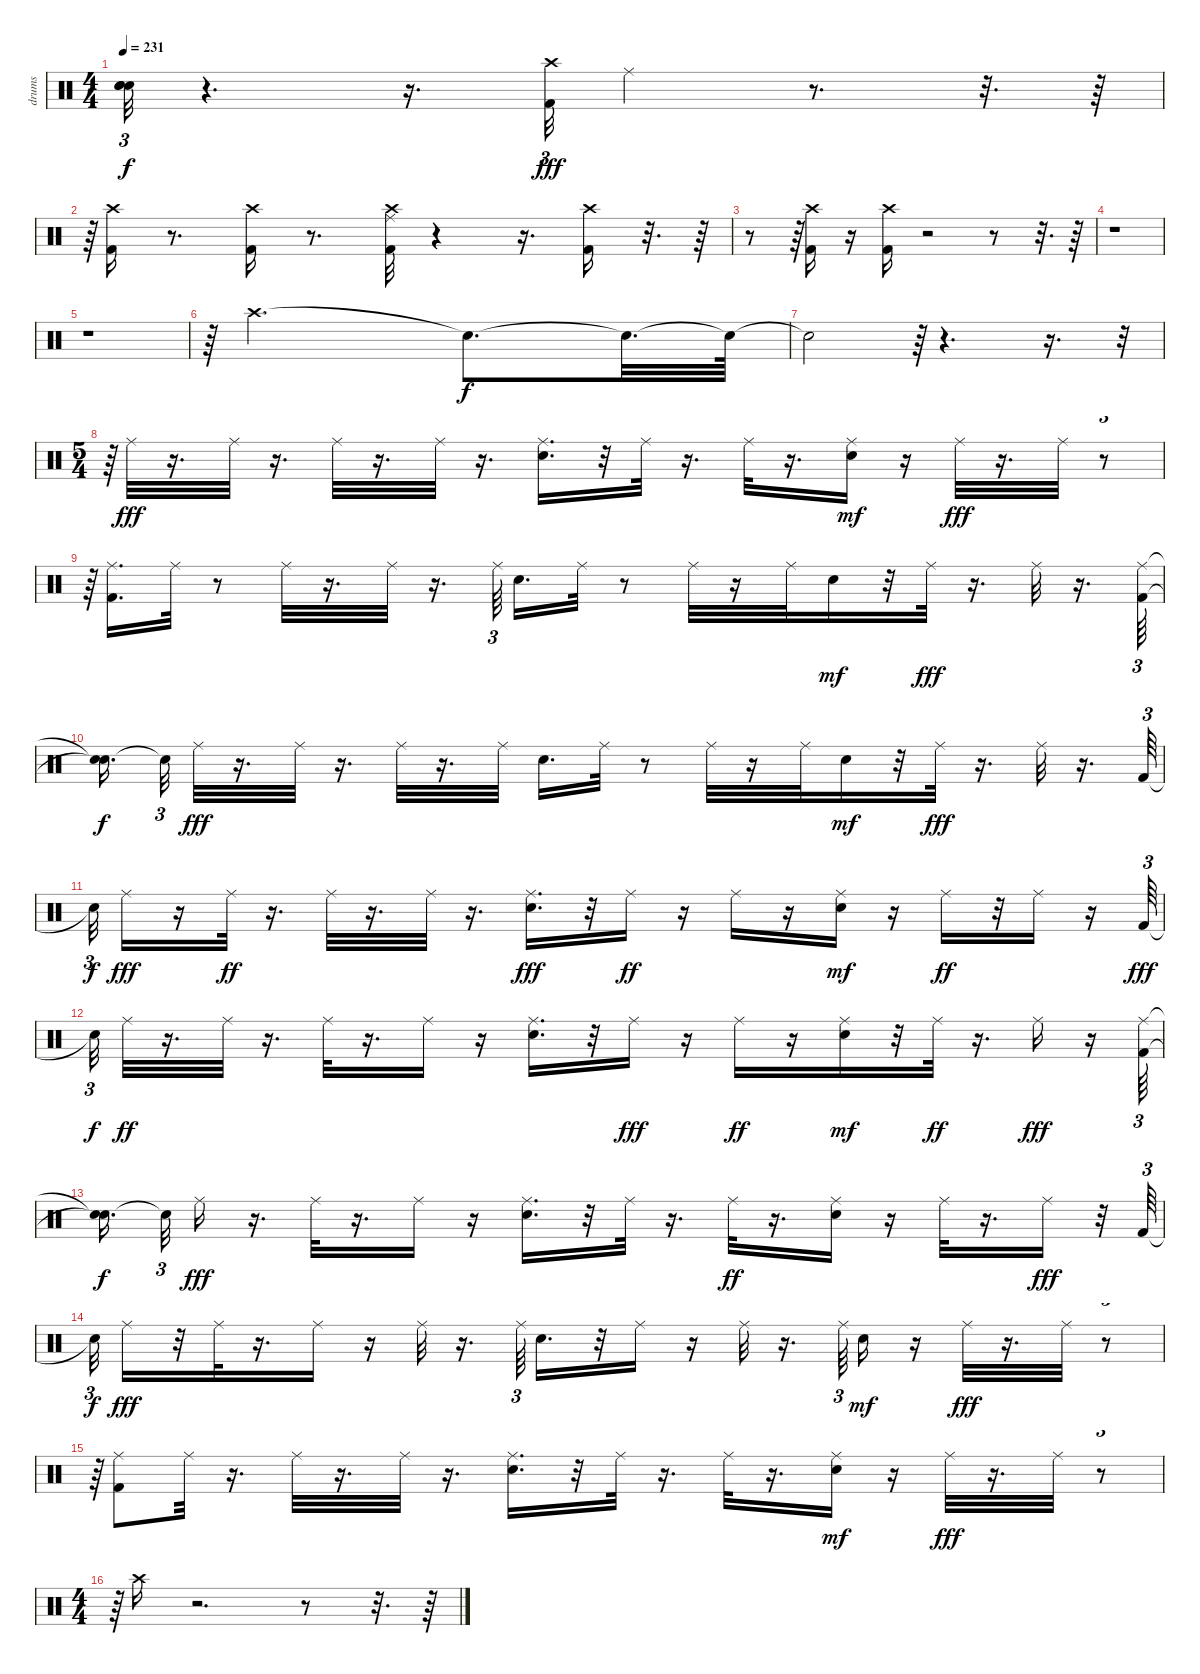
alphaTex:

\track ("drums               " "drums     ") {instrument percussion}
\staff {score}
\articulation defaults
\ts (4 4)
\tempo 231
\clef neutral
\ks c
("Snare (hit)"{t} "Snare (hit)"{t} "Snare (hit)"{t}).32{tu (3 2) dy f} r.4{d} r.16{d} ("Kick (hit) 2" "Crash high (hit)").32{tu (3 2) dy fff} "Ride (middle)".4 r.8{d} r.32{d} r.64 |
r.64{tu (3 2)} ("Kick (hit) 2" "Crash high (hit)").16 r.8{d} ("Kick (hit) 2" "Crash high (hit)").16 r.8{d} ("Kick (hit) 2" "Crash high (hit)" "Ride (middle)").32 r.4 r.16{d} ("Kick (hit) 2" "Crash high (hit)").16 r.32{d} r.64 |
r.8 r.64{tu (3 2)} ("Kick (hit) 2" "Crash high (hit)").16 r.16 ("Kick (hit) 2" "Crash high (hit)").16 r.2 r.8 r.32{d} r.64 |
r.1 |
r.1 |
r.64{tu (3 2)} "Crash high (hit)".2{d} "Snare (hit)"{t}.8{d dy f} "Snare (hit)"{t}.32{d} "Snare (hit)"{t}.64 |
"Snare (hit)"{t}.2 r.64{tu (3 2)} r.4{d} r.16{d} r.32{tu (3 2)} |
\ts (5 4)
r.64{tu (3 2)} "Ride (middle)".32{dy fff} r.16{d} "Ride (middle)".32 r.16{d} "Ride (middle)".32 r.16{d} "Ride (middle)".32 r.16{d} ("Ride (middle)" "Snare (hit) 2").16{d} r.32 "Ride (middle)".32 r.16{d} "Ride (middle)".32 r.16{d} ("Ride (middle)" "Snare (hit) 2").16{dy mf} r.16 "Ride (middle)".32{dy fff} r.16{d} "Ride (middle)".32 r.8{tu (3 2)} |
r.64{tu (3 2)} ("Kick (hit) 2" "Ride (middle)").16{d} "Ride (middle)".32 r.8 "Ride (middle)".32 r.16{d} "Ride (middle)".32 r.16{d} "Ride (middle)".64{tu (3 2)} "Snare (hit) 2".16{d} "Ride (middle)".32 r.8 "Ride (middle)".32 r.16 "Ride (middle)".32 "Snare (hit) 2".16{dy mf} r.32 "Ride (middle)".32{dy fff} r.16{d} "Ride (middle)".32 r.16{d} ("Kick (hit) 2" "Ride (middle)").64{tu (3 2)} |
("Snare (hit)"{t} "Snare (hit)"{t}).16{d dy f} "Snare (hit)"{t}.32{tu (3 2)} "Ride (middle)".32{dy fff} r.16{d} "Ride (middle)".32 r.16{d} "Ride (middle)".32 r.16{d} "Ride (middle)".32 "Snare (hit) 2".16{d} "Ride (middle)".32 r.8 "Ride (middle)".32 r.16 "Ride (middle)".32 "Snare (hit) 2".16{dy mf} r.32 "Ride (middle)".32{dy fff} r.16{d} "Ride (middle)".32 r.16{d} "Kick (hit) 2".64{tu (3 2)} |
"Snare (hit)"{t}.32{tu (3 2) dy f} "Ride (middle)".16{dy fff} r.16 "Ride (middle)".32{dy ff} r.16{d} "Ride (middle)".32 r.16{d} "Ride (middle)".32 r.16{d} ("Ride (middle)" "Snare (hit) 2").16{d dy fff} r.32 "Ride (middle)".16{dy ff} r.16 "Ride (middle)".16 r.16 ("Ride (middle)" "Snare (hit) 2").16{dy mf} r.16 "Ride (middle)".16{dy ff} r.32 "Ride (middle)".16 r.16 "Kick (hit) 2".64{tu (3 2) dy fff} |
"Snare (hit)"{t}.32{tu (3 2) dy f} "Ride (middle)".32{dy ff} r.16{d} "Ride (middle)".32 r.16{d} "Ride (middle)".32 r.16{d} "Ride (middle)".16 r.16 ("Snare (hit) 2" "Ride (middle)").16{d} r.32 "Ride (middle)".16{dy fff} r.16 "Ride (middle)".16{dy ff} r.16 ("Ride (middle)" "Snare (hit) 2").16{dy mf} r.32 "Ride (middle)".32{dy ff} r.16{d} "Ride (middle)".16{dy fff} r.16 ("Kick (hit) 2" "Ride (middle)").64{tu (3 2)} |
("Snare (hit)"{t} "Snare (hit)"{t}).16{d dy f} "Snare (hit)"{t}.32{tu (3 2)} "Ride (middle)".16{dy fff} r.16{d} "Ride (middle)".32 r.16{d} "Ride (middle)".16 r.16 ("Snare (hit) 2" "Ride (middle)").16{d} r.32 "Ride (middle)".32 r.16{d} "Ride (middle)".32{dy ff} r.16{d} ("Snare (hit) 2" "Ride (middle)").16 r.16 "Ride (middle)".32 r.16{d} "Ride (middle)".16{dy fff} r.32 "Kick (hit) 2".64{tu (3 2)} |
"Snare (hit)"{t}.32{tu (3 2) dy f} "Ride (middle)".16{dy fff} r.32 "Ride (middle)".32 r.16{d} "Ride (middle)".16 r.16 "Ride (middle)".32 r.16{d} "Ride (middle)".64{tu (3 2)} "Snare (hit) 2".16{d} r.32 "Ride (middle)".16 r.16 "Ride (middle)".32 r.16{d} "Ride (middle)".64{tu (3 2)} "Snare (hit) 2".16{dy mf} r.16 "Ride (middle)".32{dy fff} r.16{d} "Ride (middle)".32 r.8{tu (3 2)} |
r.64{tu (3 2)} ("Kick (hit) 2" "Ride (middle)").8 "Ride (middle)".32 r.16{d} "Ride (middle)".32 r.16{d} "Ride (middle)".32 r.16{d} ("Ride (middle)" "Snare (hit) 2").16{d} r.32 "Ride (middle)".32 r.16{d} "Ride (middle)".32 r.16{d} ("Ride (middle)" "Snare (hit) 2").16{dy mf} r.16 "Ride (middle)".32{dy fff} r.16{d} "Ride (middle)".32 r.8{tu (3 2)} |
\ts (4 4)
r.64{tu (3 2)} "Crash high (hit)".16 r.2{d} r.8 r.32{d} r.64
